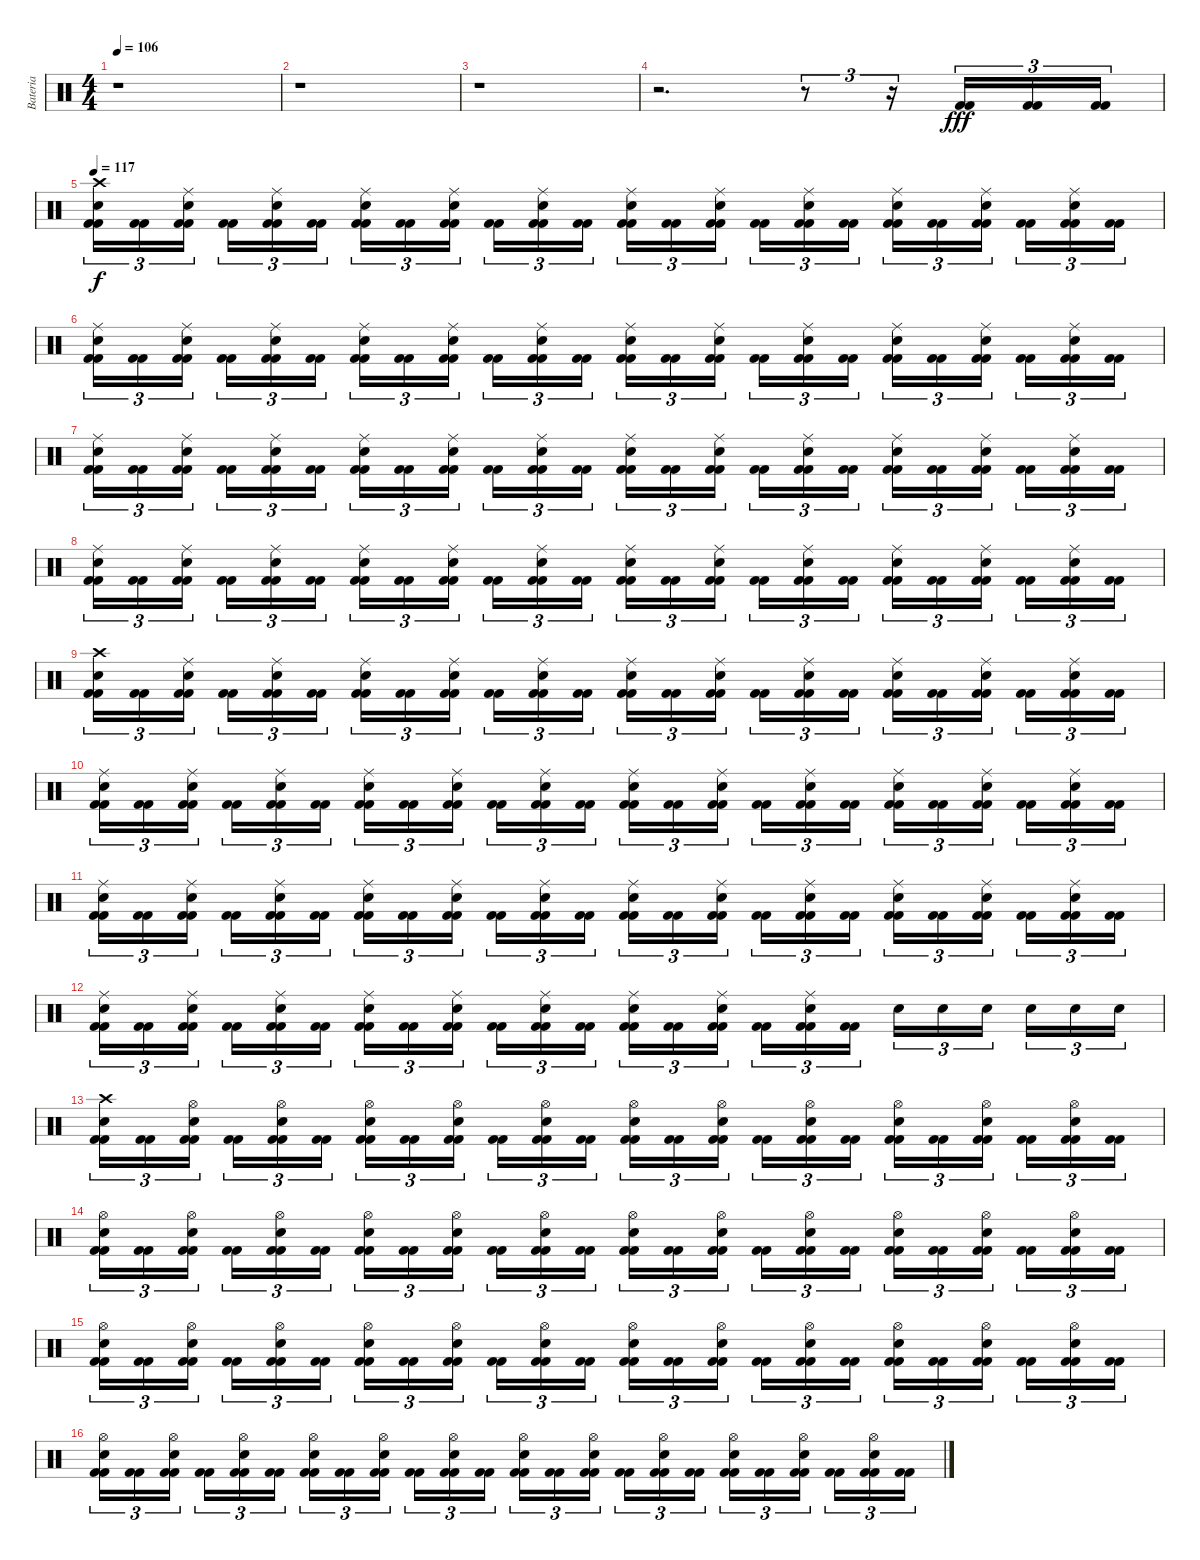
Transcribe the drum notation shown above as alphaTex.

\track ("Bateria" "Bateria") {instrument percussion}
\staff {score}
\articulation defaults
\ts (4 4)
\tempo 106
\clef neutral
\ks c
r.1{dy f} |
r.1 |
r.1 |
r.2{d} r.8{tu (3 2)} r.16{tu (3 2)} ("Kick (hit) 2" "Kick (hit) 2").16{tu (3 2) dy fff} ("Kick (hit) 2" "Kick (hit) 2").16{tu (3 2)} ("Kick (hit) 2" "Kick (hit) 2").16{tu (3 2)} |
\tempo 117
("Kick (hit) 2" "Kick (hit) 2" "Snare (hit) 2" "Crash high (hit)").16{tu (3 2) dy f} ("Kick (hit) 2" "Kick (hit) 2").16{tu (3 2)} ("Kick (hit) 2" "Kick (hit) 2" "Snare (hit) 2" "Ride (middle)").16{tu (3 2)} ("Kick (hit) 2" "Kick (hit) 2").16{tu (3 2)} ("Kick (hit) 2" "Kick (hit) 2" "Snare (hit) 2" "Ride (middle)").16{tu (3 2)} ("Kick (hit) 2" "Kick (hit) 2").16{tu (3 2)} ("Kick (hit) 2" "Kick (hit) 2" "Snare (hit) 2" "Ride (middle)").16{tu (3 2)} ("Kick (hit) 2" "Kick (hit) 2").16{tu (3 2)} ("Kick (hit) 2" "Kick (hit) 2" "Snare (hit) 2" "Ride (middle)").16{tu (3 2)} ("Kick (hit) 2" "Kick (hit) 2").16{tu (3 2)} ("Kick (hit) 2" "Kick (hit) 2" "Snare (hit) 2" "Ride (middle)").16{tu (3 2)} ("Kick (hit) 2" "Kick (hit) 2").16{tu (3 2)} ("Kick (hit) 2" "Kick (hit) 2" "Snare (hit) 2" "Ride (middle)").16{tu (3 2)} ("Kick (hit) 2" "Kick (hit) 2").16{tu (3 2)} ("Kick (hit) 2" "Kick (hit) 2" "Snare (hit) 2" "Ride (middle)").16{tu (3 2)} ("Kick (hit) 2" "Kick (hit) 2").16{tu (3 2)} ("Kick (hit) 2" "Kick (hit) 2" "Snare (hit) 2" "Ride (middle)").16{tu (3 2)} ("Kick (hit) 2" "Kick (hit) 2").16{tu (3 2)} ("Kick (hit) 2" "Kick (hit) 2" "Snare (hit) 2" "Ride (middle)").16{tu (3 2)} ("Kick (hit) 2" "Kick (hit) 2").16{tu (3 2)} ("Kick (hit) 2" "Kick (hit) 2" "Snare (hit) 2" "Ride (middle)").16{tu (3 2)} ("Kick (hit) 2" "Kick (hit) 2").16{tu (3 2)} ("Kick (hit) 2" "Kick (hit) 2" "Snare (hit) 2" "Ride (middle)").16{tu (3 2)} ("Kick (hit) 2" "Kick (hit) 2").16{tu (3 2)} |
("Kick (hit) 2" "Kick (hit) 2" "Snare (hit) 2" "Ride (middle)").16{tu (3 2)} ("Kick (hit) 2" "Kick (hit) 2").16{tu (3 2)} ("Kick (hit) 2" "Kick (hit) 2" "Snare (hit) 2" "Ride (middle)").16{tu (3 2)} ("Kick (hit) 2" "Kick (hit) 2").16{tu (3 2)} ("Kick (hit) 2" "Kick (hit) 2" "Snare (hit) 2" "Ride (middle)").16{tu (3 2)} ("Kick (hit) 2" "Kick (hit) 2").16{tu (3 2)} ("Kick (hit) 2" "Kick (hit) 2" "Snare (hit) 2" "Ride (middle)").16{tu (3 2)} ("Kick (hit) 2" "Kick (hit) 2").16{tu (3 2)} ("Kick (hit) 2" "Kick (hit) 2" "Snare (hit) 2" "Ride (middle)").16{tu (3 2)} ("Kick (hit) 2" "Kick (hit) 2").16{tu (3 2)} ("Kick (hit) 2" "Kick (hit) 2" "Snare (hit) 2" "Ride (middle)").16{tu (3 2)} ("Kick (hit) 2" "Kick (hit) 2").16{tu (3 2)} ("Kick (hit) 2" "Kick (hit) 2" "Snare (hit) 2" "Ride (middle)").16{tu (3 2)} ("Kick (hit) 2" "Kick (hit) 2").16{tu (3 2)} ("Kick (hit) 2" "Kick (hit) 2" "Snare (hit) 2" "Ride (middle)").16{tu (3 2)} ("Kick (hit) 2" "Kick (hit) 2").16{tu (3 2)} ("Kick (hit) 2" "Kick (hit) 2" "Snare (hit) 2" "Ride (middle)").16{tu (3 2)} ("Kick (hit) 2" "Kick (hit) 2").16{tu (3 2)} ("Kick (hit) 2" "Kick (hit) 2" "Snare (hit) 2" "Ride (middle)").16{tu (3 2)} ("Kick (hit) 2" "Kick (hit) 2").16{tu (3 2)} ("Kick (hit) 2" "Kick (hit) 2" "Snare (hit) 2" "Ride (middle)").16{tu (3 2)} ("Kick (hit) 2" "Kick (hit) 2").16{tu (3 2)} ("Kick (hit) 2" "Kick (hit) 2" "Snare (hit) 2" "Ride (middle)").16{tu (3 2)} ("Kick (hit) 2" "Kick (hit) 2").16{tu (3 2)} |
("Kick (hit) 2" "Kick (hit) 2" "Snare (hit) 2" "Ride (middle)").16{tu (3 2)} ("Kick (hit) 2" "Kick (hit) 2").16{tu (3 2)} ("Kick (hit) 2" "Kick (hit) 2" "Snare (hit) 2" "Ride (middle)").16{tu (3 2)} ("Kick (hit) 2" "Kick (hit) 2").16{tu (3 2)} ("Kick (hit) 2" "Kick (hit) 2" "Snare (hit) 2" "Ride (middle)").16{tu (3 2)} ("Kick (hit) 2" "Kick (hit) 2").16{tu (3 2)} ("Kick (hit) 2" "Kick (hit) 2" "Snare (hit) 2" "Ride (middle)").16{tu (3 2)} ("Kick (hit) 2" "Kick (hit) 2").16{tu (3 2)} ("Kick (hit) 2" "Kick (hit) 2" "Snare (hit) 2" "Ride (middle)").16{tu (3 2)} ("Kick (hit) 2" "Kick (hit) 2").16{tu (3 2)} ("Kick (hit) 2" "Kick (hit) 2" "Snare (hit) 2" "Ride (middle)").16{tu (3 2)} ("Kick (hit) 2" "Kick (hit) 2").16{tu (3 2)} ("Kick (hit) 2" "Kick (hit) 2" "Snare (hit) 2" "Ride (middle)").16{tu (3 2)} ("Kick (hit) 2" "Kick (hit) 2").16{tu (3 2)} ("Kick (hit) 2" "Kick (hit) 2" "Snare (hit) 2" "Ride (middle)").16{tu (3 2)} ("Kick (hit) 2" "Kick (hit) 2").16{tu (3 2)} ("Kick (hit) 2" "Kick (hit) 2" "Snare (hit) 2" "Ride (middle)").16{tu (3 2)} ("Kick (hit) 2" "Kick (hit) 2").16{tu (3 2)} ("Kick (hit) 2" "Kick (hit) 2" "Snare (hit) 2" "Ride (middle)").16{tu (3 2)} ("Kick (hit) 2" "Kick (hit) 2").16{tu (3 2)} ("Kick (hit) 2" "Kick (hit) 2" "Snare (hit) 2" "Ride (middle)").16{tu (3 2)} ("Kick (hit) 2" "Kick (hit) 2").16{tu (3 2)} ("Kick (hit) 2" "Kick (hit) 2" "Snare (hit) 2" "Ride (middle)").16{tu (3 2)} ("Kick (hit) 2" "Kick (hit) 2").16{tu (3 2)} |
("Kick (hit) 2" "Kick (hit) 2" "Snare (hit) 2" "Ride (middle)").16{tu (3 2)} ("Kick (hit) 2" "Kick (hit) 2").16{tu (3 2)} ("Kick (hit) 2" "Kick (hit) 2" "Snare (hit) 2" "Ride (middle)").16{tu (3 2)} ("Kick (hit) 2" "Kick (hit) 2").16{tu (3 2)} ("Kick (hit) 2" "Kick (hit) 2" "Snare (hit) 2" "Ride (middle)").16{tu (3 2)} ("Kick (hit) 2" "Kick (hit) 2").16{tu (3 2)} ("Kick (hit) 2" "Kick (hit) 2" "Snare (hit) 2" "Ride (middle)").16{tu (3 2)} ("Kick (hit) 2" "Kick (hit) 2").16{tu (3 2)} ("Kick (hit) 2" "Kick (hit) 2" "Snare (hit) 2" "Ride (middle)").16{tu (3 2)} ("Kick (hit) 2" "Kick (hit) 2").16{tu (3 2)} ("Kick (hit) 2" "Kick (hit) 2" "Snare (hit) 2" "Ride (middle)").16{tu (3 2)} ("Kick (hit) 2" "Kick (hit) 2").16{tu (3 2)} ("Kick (hit) 2" "Kick (hit) 2" "Snare (hit) 2" "Ride (middle)").16{tu (3 2)} ("Kick (hit) 2" "Kick (hit) 2").16{tu (3 2)} ("Kick (hit) 2" "Kick (hit) 2" "Snare (hit) 2" "Ride (middle)").16{tu (3 2)} ("Kick (hit) 2" "Kick (hit) 2").16{tu (3 2)} ("Kick (hit) 2" "Kick (hit) 2" "Snare (hit) 2" "Ride (middle)").16{tu (3 2)} ("Kick (hit) 2" "Kick (hit) 2").16{tu (3 2)} ("Kick (hit) 2" "Kick (hit) 2" "Snare (hit) 2" "Ride (middle)").16{tu (3 2)} ("Kick (hit) 2" "Kick (hit) 2").16{tu (3 2)} ("Kick (hit) 2" "Kick (hit) 2" "Snare (hit) 2" "Ride (middle)").16{tu (3 2)} ("Kick (hit) 2" "Kick (hit) 2").16{tu (3 2)} ("Kick (hit) 2" "Kick (hit) 2" "Snare (hit) 2" "Ride (middle)").16{tu (3 2)} ("Kick (hit) 2" "Kick (hit) 2").16{tu (3 2)} |
("Kick (hit) 2" "Kick (hit) 2" "Snare (hit) 2" "Crash high (hit)").16{tu (3 2)} ("Kick (hit) 2" "Kick (hit) 2").16{tu (3 2)} ("Kick (hit) 2" "Kick (hit) 2" "Snare (hit) 2" "Ride (middle)").16{tu (3 2)} ("Kick (hit) 2" "Kick (hit) 2").16{tu (3 2)} ("Kick (hit) 2" "Kick (hit) 2" "Snare (hit) 2" "Ride (middle)").16{tu (3 2)} ("Kick (hit) 2" "Kick (hit) 2").16{tu (3 2)} ("Kick (hit) 2" "Kick (hit) 2" "Snare (hit) 2" "Ride (middle)").16{tu (3 2)} ("Kick (hit) 2" "Kick (hit) 2").16{tu (3 2)} ("Kick (hit) 2" "Kick (hit) 2" "Snare (hit) 2" "Ride (middle)").16{tu (3 2)} ("Kick (hit) 2" "Kick (hit) 2").16{tu (3 2)} ("Kick (hit) 2" "Kick (hit) 2" "Snare (hit) 2" "Ride (middle)").16{tu (3 2)} ("Kick (hit) 2" "Kick (hit) 2").16{tu (3 2)} ("Kick (hit) 2" "Kick (hit) 2" "Snare (hit) 2" "Ride (middle)").16{tu (3 2)} ("Kick (hit) 2" "Kick (hit) 2").16{tu (3 2)} ("Kick (hit) 2" "Kick (hit) 2" "Snare (hit) 2" "Ride (middle)").16{tu (3 2)} ("Kick (hit) 2" "Kick (hit) 2").16{tu (3 2)} ("Kick (hit) 2" "Kick (hit) 2" "Snare (hit) 2" "Ride (middle)").16{tu (3 2)} ("Kick (hit) 2" "Kick (hit) 2").16{tu (3 2)} ("Kick (hit) 2" "Kick (hit) 2" "Snare (hit) 2" "Ride (middle)").16{tu (3 2)} ("Kick (hit) 2" "Kick (hit) 2").16{tu (3 2)} ("Kick (hit) 2" "Kick (hit) 2" "Snare (hit) 2" "Ride (middle)").16{tu (3 2)} ("Kick (hit) 2" "Kick (hit) 2").16{tu (3 2)} ("Kick (hit) 2" "Kick (hit) 2" "Snare (hit) 2" "Ride (middle)").16{tu (3 2)} ("Kick (hit) 2" "Kick (hit) 2").16{tu (3 2)} |
("Kick (hit) 2" "Kick (hit) 2" "Snare (hit) 2" "Ride (middle)").16{tu (3 2)} ("Kick (hit) 2" "Kick (hit) 2").16{tu (3 2)} ("Kick (hit) 2" "Kick (hit) 2" "Snare (hit) 2" "Ride (middle)").16{tu (3 2)} ("Kick (hit) 2" "Kick (hit) 2").16{tu (3 2)} ("Kick (hit) 2" "Kick (hit) 2" "Snare (hit) 2" "Ride (middle)").16{tu (3 2)} ("Kick (hit) 2" "Kick (hit) 2").16{tu (3 2)} ("Kick (hit) 2" "Kick (hit) 2" "Snare (hit) 2" "Ride (middle)").16{tu (3 2)} ("Kick (hit) 2" "Kick (hit) 2").16{tu (3 2)} ("Kick (hit) 2" "Kick (hit) 2" "Snare (hit) 2" "Ride (middle)").16{tu (3 2)} ("Kick (hit) 2" "Kick (hit) 2").16{tu (3 2)} ("Kick (hit) 2" "Kick (hit) 2" "Snare (hit) 2" "Ride (middle)").16{tu (3 2)} ("Kick (hit) 2" "Kick (hit) 2").16{tu (3 2)} ("Kick (hit) 2" "Kick (hit) 2" "Snare (hit) 2" "Ride (middle)").16{tu (3 2)} ("Kick (hit) 2" "Kick (hit) 2").16{tu (3 2)} ("Kick (hit) 2" "Kick (hit) 2" "Snare (hit) 2" "Ride (middle)").16{tu (3 2)} ("Kick (hit) 2" "Kick (hit) 2").16{tu (3 2)} ("Kick (hit) 2" "Kick (hit) 2" "Snare (hit) 2" "Ride (middle)").16{tu (3 2)} ("Kick (hit) 2" "Kick (hit) 2").16{tu (3 2)} ("Kick (hit) 2" "Kick (hit) 2" "Snare (hit) 2" "Ride (middle)").16{tu (3 2)} ("Kick (hit) 2" "Kick (hit) 2").16{tu (3 2)} ("Kick (hit) 2" "Kick (hit) 2" "Snare (hit) 2" "Ride (middle)").16{tu (3 2)} ("Kick (hit) 2" "Kick (hit) 2").16{tu (3 2)} ("Kick (hit) 2" "Kick (hit) 2" "Snare (hit) 2" "Ride (middle)").16{tu (3 2)} ("Kick (hit) 2" "Kick (hit) 2").16{tu (3 2)} |
("Kick (hit) 2" "Kick (hit) 2" "Snare (hit) 2" "Ride (middle)").16{tu (3 2)} ("Kick (hit) 2" "Kick (hit) 2").16{tu (3 2)} ("Kick (hit) 2" "Kick (hit) 2" "Snare (hit) 2" "Ride (middle)").16{tu (3 2)} ("Kick (hit) 2" "Kick (hit) 2").16{tu (3 2)} ("Kick (hit) 2" "Kick (hit) 2" "Snare (hit) 2" "Ride (middle)").16{tu (3 2)} ("Kick (hit) 2" "Kick (hit) 2").16{tu (3 2)} ("Kick (hit) 2" "Kick (hit) 2" "Snare (hit) 2" "Ride (middle)").16{tu (3 2)} ("Kick (hit) 2" "Kick (hit) 2").16{tu (3 2)} ("Kick (hit) 2" "Kick (hit) 2" "Snare (hit) 2" "Ride (middle)").16{tu (3 2)} ("Kick (hit) 2" "Kick (hit) 2").16{tu (3 2)} ("Kick (hit) 2" "Kick (hit) 2" "Snare (hit) 2" "Ride (middle)").16{tu (3 2)} ("Kick (hit) 2" "Kick (hit) 2").16{tu (3 2)} ("Kick (hit) 2" "Kick (hit) 2" "Snare (hit) 2" "Ride (middle)").16{tu (3 2)} ("Kick (hit) 2" "Kick (hit) 2").16{tu (3 2)} ("Kick (hit) 2" "Kick (hit) 2" "Snare (hit) 2" "Ride (middle)").16{tu (3 2)} ("Kick (hit) 2" "Kick (hit) 2").16{tu (3 2)} ("Kick (hit) 2" "Kick (hit) 2" "Snare (hit) 2" "Ride (middle)").16{tu (3 2)} ("Kick (hit) 2" "Kick (hit) 2").16{tu (3 2)} ("Kick (hit) 2" "Kick (hit) 2" "Snare (hit) 2" "Ride (middle)").16{tu (3 2)} ("Kick (hit) 2" "Kick (hit) 2").16{tu (3 2)} ("Kick (hit) 2" "Kick (hit) 2" "Snare (hit) 2" "Ride (middle)").16{tu (3 2)} ("Kick (hit) 2" "Kick (hit) 2").16{tu (3 2)} ("Kick (hit) 2" "Kick (hit) 2" "Snare (hit) 2" "Ride (middle)").16{tu (3 2)} ("Kick (hit) 2" "Kick (hit) 2").16{tu (3 2)} |
("Kick (hit) 2" "Kick (hit) 2" "Snare (hit) 2" "Ride (middle)").16{tu (3 2)} ("Kick (hit) 2" "Kick (hit) 2").16{tu (3 2)} ("Kick (hit) 2" "Kick (hit) 2" "Snare (hit) 2" "Ride (middle)").16{tu (3 2)} ("Kick (hit) 2" "Kick (hit) 2").16{tu (3 2)} ("Kick (hit) 2" "Kick (hit) 2" "Snare (hit) 2" "Ride (middle)").16{tu (3 2)} ("Kick (hit) 2" "Kick (hit) 2").16{tu (3 2)} ("Kick (hit) 2" "Kick (hit) 2" "Snare (hit) 2" "Ride (middle)").16{tu (3 2)} ("Kick (hit) 2" "Kick (hit) 2").16{tu (3 2)} ("Kick (hit) 2" "Kick (hit) 2" "Snare (hit) 2" "Ride (middle)").16{tu (3 2)} ("Kick (hit) 2" "Kick (hit) 2").16{tu (3 2)} ("Kick (hit) 2" "Kick (hit) 2" "Snare (hit) 2" "Ride (middle)").16{tu (3 2)} ("Kick (hit) 2" "Kick (hit) 2").16{tu (3 2)} ("Kick (hit) 2" "Kick (hit) 2" "Snare (hit) 2" "Ride (middle)").16{tu (3 2)} ("Kick (hit) 2" "Kick (hit) 2").16{tu (3 2)} ("Kick (hit) 2" "Kick (hit) 2" "Snare (hit) 2" "Ride (middle)").16{tu (3 2)} ("Kick (hit) 2" "Kick (hit) 2").16{tu (3 2)} ("Kick (hit) 2" "Kick (hit) 2" "Snare (hit) 2" "Ride (middle)").16{tu (3 2)} ("Kick (hit) 2" "Kick (hit) 2").16{tu (3 2)} "Snare (hit) 2".16{tu (3 2)} "Snare (hit) 2".16{tu (3 2)} "Snare (hit) 2".16{tu (3 2)} "Snare (hit) 2".16{tu (3 2)} "Snare (hit) 2".16{tu (3 2)} "Snare (hit) 2".16{tu (3 2)} |
("Kick (hit) 2" "Kick (hit) 2" "Snare (hit) 2" "Crash high (hit)").16{tu (3 2)} ("Kick (hit) 2" "Kick (hit) 2").16{tu (3 2)} ("Kick (hit) 2" "Kick (hit) 2" "Snare (hit) 2" "Hi-Hat (open)").16{tu (3 2)} ("Kick (hit) 2" "Kick (hit) 2").16{tu (3 2)} ("Kick (hit) 2" "Kick (hit) 2" "Snare (hit) 2" "Hi-Hat (open)").16{tu (3 2)} ("Kick (hit) 2" "Kick (hit) 2").16{tu (3 2)} ("Kick (hit) 2" "Kick (hit) 2" "Snare (hit) 2" "Hi-Hat (open)").16{tu (3 2)} ("Kick (hit) 2" "Kick (hit) 2").16{tu (3 2)} ("Kick (hit) 2" "Kick (hit) 2" "Snare (hit) 2" "Hi-Hat (open)").16{tu (3 2)} ("Kick (hit) 2" "Kick (hit) 2").16{tu (3 2)} ("Kick (hit) 2" "Kick (hit) 2" "Snare (hit) 2" "Hi-Hat (open)").16{tu (3 2)} ("Kick (hit) 2" "Kick (hit) 2").16{tu (3 2)} ("Kick (hit) 2" "Kick (hit) 2" "Snare (hit) 2" "Hi-Hat (open)").16{tu (3 2)} ("Kick (hit) 2" "Kick (hit) 2").16{tu (3 2)} ("Kick (hit) 2" "Kick (hit) 2" "Snare (hit) 2" "Hi-Hat (open)").16{tu (3 2)} ("Kick (hit) 2" "Kick (hit) 2").16{tu (3 2)} ("Kick (hit) 2" "Kick (hit) 2" "Snare (hit) 2" "Hi-Hat (open)").16{tu (3 2)} ("Kick (hit) 2" "Kick (hit) 2").16{tu (3 2)} ("Kick (hit) 2" "Kick (hit) 2" "Snare (hit) 2" "Hi-Hat (open)").16{tu (3 2)} ("Kick (hit) 2" "Kick (hit) 2").16{tu (3 2)} ("Kick (hit) 2" "Kick (hit) 2" "Snare (hit) 2" "Hi-Hat (open)").16{tu (3 2)} ("Kick (hit) 2" "Kick (hit) 2").16{tu (3 2)} ("Kick (hit) 2" "Kick (hit) 2" "Snare (hit) 2" "Hi-Hat (open)").16{tu (3 2)} ("Kick (hit) 2" "Kick (hit) 2").16{tu (3 2)} |
("Kick (hit) 2" "Kick (hit) 2" "Snare (hit) 2" "Hi-Hat (open)").16{tu (3 2)} ("Kick (hit) 2" "Kick (hit) 2").16{tu (3 2)} ("Kick (hit) 2" "Kick (hit) 2" "Snare (hit) 2" "Hi-Hat (open)").16{tu (3 2)} ("Kick (hit) 2" "Kick (hit) 2").16{tu (3 2)} ("Kick (hit) 2" "Kick (hit) 2" "Snare (hit) 2" "Hi-Hat (open)").16{tu (3 2)} ("Kick (hit) 2" "Kick (hit) 2").16{tu (3 2)} ("Kick (hit) 2" "Kick (hit) 2" "Snare (hit) 2" "Hi-Hat (open)").16{tu (3 2)} ("Kick (hit) 2" "Kick (hit) 2").16{tu (3 2)} ("Kick (hit) 2" "Kick (hit) 2" "Snare (hit) 2" "Hi-Hat (open)").16{tu (3 2)} ("Kick (hit) 2" "Kick (hit) 2").16{tu (3 2)} ("Kick (hit) 2" "Kick (hit) 2" "Snare (hit) 2" "Hi-Hat (open)").16{tu (3 2)} ("Kick (hit) 2" "Kick (hit) 2").16{tu (3 2)} ("Kick (hit) 2" "Kick (hit) 2" "Snare (hit) 2" "Hi-Hat (open)").16{tu (3 2)} ("Kick (hit) 2" "Kick (hit) 2").16{tu (3 2)} ("Kick (hit) 2" "Kick (hit) 2" "Snare (hit) 2" "Hi-Hat (open)").16{tu (3 2)} ("Kick (hit) 2" "Kick (hit) 2").16{tu (3 2)} ("Kick (hit) 2" "Kick (hit) 2" "Snare (hit) 2" "Hi-Hat (open)").16{tu (3 2)} ("Kick (hit) 2" "Kick (hit) 2").16{tu (3 2)} ("Kick (hit) 2" "Kick (hit) 2" "Snare (hit) 2" "Hi-Hat (open)").16{tu (3 2)} ("Kick (hit) 2" "Kick (hit) 2").16{tu (3 2)} ("Kick (hit) 2" "Kick (hit) 2" "Snare (hit) 2" "Hi-Hat (open)").16{tu (3 2)} ("Kick (hit) 2" "Kick (hit) 2").16{tu (3 2)} ("Kick (hit) 2" "Kick (hit) 2" "Snare (hit) 2" "Hi-Hat (open)").16{tu (3 2)} ("Kick (hit) 2" "Kick (hit) 2").16{tu (3 2)} |
("Kick (hit) 2" "Kick (hit) 2" "Snare (hit) 2" "Hi-Hat (open)").16{tu (3 2)} ("Kick (hit) 2" "Kick (hit) 2").16{tu (3 2)} ("Kick (hit) 2" "Kick (hit) 2" "Snare (hit) 2" "Hi-Hat (open)").16{tu (3 2)} ("Kick (hit) 2" "Kick (hit) 2").16{tu (3 2)} ("Kick (hit) 2" "Kick (hit) 2" "Snare (hit) 2" "Hi-Hat (open)").16{tu (3 2)} ("Kick (hit) 2" "Kick (hit) 2").16{tu (3 2)} ("Kick (hit) 2" "Kick (hit) 2" "Snare (hit) 2" "Hi-Hat (open)").16{tu (3 2)} ("Kick (hit) 2" "Kick (hit) 2").16{tu (3 2)} ("Kick (hit) 2" "Kick (hit) 2" "Snare (hit) 2" "Hi-Hat (open)").16{tu (3 2)} ("Kick (hit) 2" "Kick (hit) 2").16{tu (3 2)} ("Kick (hit) 2" "Kick (hit) 2" "Snare (hit) 2" "Hi-Hat (open)").16{tu (3 2)} ("Kick (hit) 2" "Kick (hit) 2").16{tu (3 2)} ("Kick (hit) 2" "Kick (hit) 2" "Snare (hit) 2" "Hi-Hat (open)").16{tu (3 2)} ("Kick (hit) 2" "Kick (hit) 2").16{tu (3 2)} ("Kick (hit) 2" "Kick (hit) 2" "Snare (hit) 2" "Hi-Hat (open)").16{tu (3 2)} ("Kick (hit) 2" "Kick (hit) 2").16{tu (3 2)} ("Kick (hit) 2" "Kick (hit) 2" "Snare (hit) 2" "Hi-Hat (open)").16{tu (3 2)} ("Kick (hit) 2" "Kick (hit) 2").16{tu (3 2)} ("Kick (hit) 2" "Kick (hit) 2" "Snare (hit) 2" "Hi-Hat (open)").16{tu (3 2)} ("Kick (hit) 2" "Kick (hit) 2").16{tu (3 2)} ("Kick (hit) 2" "Kick (hit) 2" "Snare (hit) 2" "Hi-Hat (open)").16{tu (3 2)} ("Kick (hit) 2" "Kick (hit) 2").16{tu (3 2)} ("Kick (hit) 2" "Kick (hit) 2" "Snare (hit) 2" "Hi-Hat (open)").16{tu (3 2)} ("Kick (hit) 2" "Kick (hit) 2").16{tu (3 2)} |
("Kick (hit) 2" "Kick (hit) 2" "Snare (hit) 2" "Hi-Hat (open)").16{tu (3 2)} ("Kick (hit) 2" "Kick (hit) 2").16{tu (3 2)} ("Kick (hit) 2" "Kick (hit) 2" "Snare (hit) 2" "Hi-Hat (open)").16{tu (3 2)} ("Kick (hit) 2" "Kick (hit) 2").16{tu (3 2)} ("Kick (hit) 2" "Kick (hit) 2" "Snare (hit) 2" "Hi-Hat (open)").16{tu (3 2)} ("Kick (hit) 2" "Kick (hit) 2").16{tu (3 2)} ("Kick (hit) 2" "Kick (hit) 2" "Snare (hit) 2" "Hi-Hat (open)").16{tu (3 2)} ("Kick (hit) 2" "Kick (hit) 2").16{tu (3 2)} ("Kick (hit) 2" "Kick (hit) 2" "Snare (hit) 2" "Hi-Hat (open)").16{tu (3 2)} ("Kick (hit) 2" "Kick (hit) 2").16{tu (3 2)} ("Kick (hit) 2" "Kick (hit) 2" "Snare (hit) 2" "Hi-Hat (open)").16{tu (3 2)} ("Kick (hit) 2" "Kick (hit) 2").16{tu (3 2)} ("Kick (hit) 2" "Kick (hit) 2" "Snare (hit) 2" "Hi-Hat (open)").16{tu (3 2)} ("Kick (hit) 2" "Kick (hit) 2").16{tu (3 2)} ("Kick (hit) 2" "Kick (hit) 2" "Snare (hit) 2" "Hi-Hat (open)").16{tu (3 2)} ("Kick (hit) 2" "Kick (hit) 2").16{tu (3 2)} ("Kick (hit) 2" "Kick (hit) 2" "Snare (hit) 2" "Hi-Hat (open)").16{tu (3 2)} ("Kick (hit) 2" "Kick (hit) 2").16{tu (3 2)} ("Kick (hit) 2" "Kick (hit) 2" "Snare (hit) 2" "Hi-Hat (open)").16{tu (3 2)} ("Kick (hit) 2" "Kick (hit) 2").16{tu (3 2)} ("Kick (hit) 2" "Kick (hit) 2" "Snare (hit) 2" "Hi-Hat (open)").16{tu (3 2)} ("Kick (hit) 2" "Kick (hit) 2").16{tu (3 2)} ("Kick (hit) 2" "Kick (hit) 2" "Snare (hit) 2" "Hi-Hat (open)").16{tu (3 2)} ("Kick (hit) 2" "Kick (hit) 2").16{tu (3 2)}
